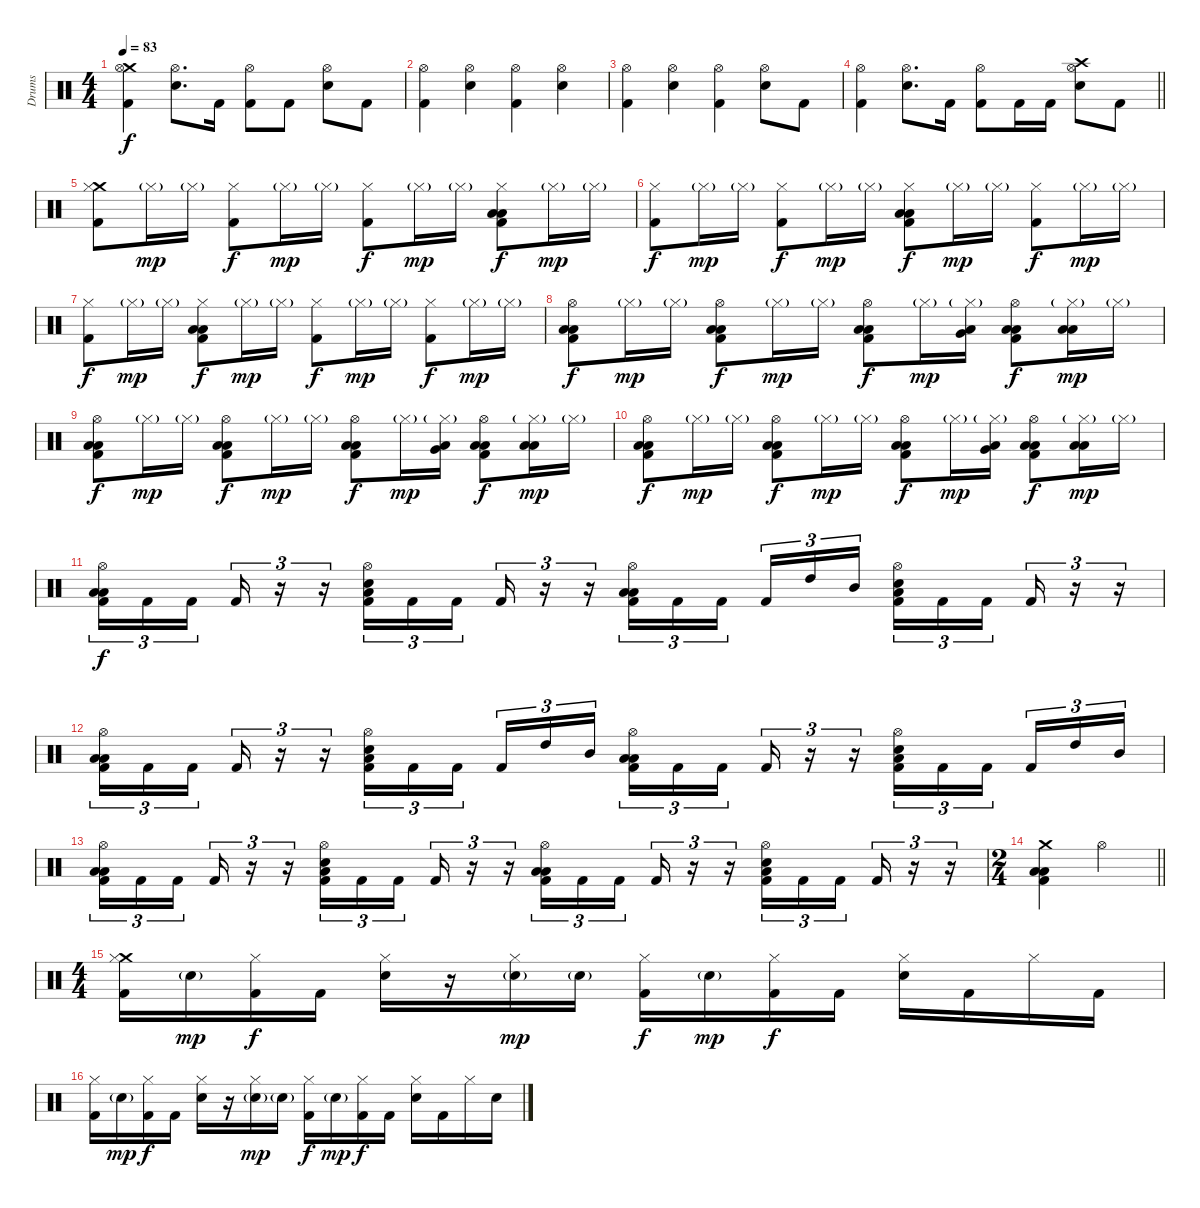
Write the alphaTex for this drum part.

\track ("Drums" "Drums") {instrument percussion}
\staff {score}
\articulation defaults
\ts (4 4)
\tempo 83
\clef neutral
\ks c
("Crash medium (hit)" "Hi-Hat (open)" "Kick (hit) 2").4{dy f} ("Hi-Hat (open)" "Electric Snare (hit)").8{d} "Kick (hit) 2".16 ("Hi-Hat (open)" "Kick (hit) 2").8 "Kick (hit) 2".8 ("Hi-Hat (open)" "Electric Snare (hit)").8 "Kick (hit) 2".8 |
("Hi-Hat (open)" "Kick (hit) 2").4 ("Hi-Hat (open)" "Electric Snare (hit)").4 ("Hi-Hat (open)" "Kick (hit) 2").4 ("Hi-Hat (open)" "Electric Snare (hit)").4 |
("Hi-Hat (open)" "Kick (hit) 2").4 ("Hi-Hat (open)" "Electric Snare (hit)").4 ("Hi-Hat (open)" "Kick (hit) 2").4 ("Hi-Hat (open)" "Electric Snare (hit)").8 "Kick (hit) 2".8 |
\barLineRight lightlight
("Hi-Hat (open)" "Kick (hit) 2").4 ("Hi-Hat (open)" "Electric Snare (hit)").8{d} "Kick (hit) 2".16 ("Hi-Hat (open)" "Kick (hit) 2").8 "Kick (hit) 2".16 "Kick (hit) 2".16 ("Crash high (hit)" "Hi-Hat (open)" "Electric Snare (hit)").8 "Kick (hit) 2".8 |
\section ("" "")
("Crash medium (hit)" "Hi-Hat (closed)" "Kick (hit) 2").8 "Hi-Hat (closed)"{g}.16{dy mp} "Hi-Hat (closed)"{g}.16 ("Hi-Hat (closed)" "Kick (hit) 2").8{dy f} "Hi-Hat (closed)"{g}.16{dy mp} "Hi-Hat (closed)"{g}.16 ("Hi-Hat (closed)" "Kick (hit) 2").8{dy f} "Hi-Hat (closed)"{g}.16{dy mp} "Hi-Hat (closed)"{g}.16 ("Hi-Hat (closed)" "Low Tom (hit)" "Low Floor Tom (hit)" "Kick (hit) 2").8{dy f} "Hi-Hat (closed)"{g}.16{dy mp} "Hi-Hat (closed)"{g}.16 |
("Hi-Hat (closed)" "Kick (hit) 2").8{dy f} "Hi-Hat (closed)"{g}.16{dy mp} "Hi-Hat (closed)"{g}.16 ("Hi-Hat (closed)" "Kick (hit) 2").8{dy f} "Hi-Hat (closed)"{g}.16{dy mp} "Hi-Hat (closed)"{g}.16 ("Hi-Hat (closed)" "Low Tom (hit)" "Low Floor Tom (hit)" "Kick (hit) 2").8{dy f} "Hi-Hat (closed)"{g}.16{dy mp} "Hi-Hat (closed)"{g}.16 ("Hi-Hat (closed)" "Kick (hit) 2").8{dy f} "Hi-Hat (closed)"{g}.16{dy mp} "Hi-Hat (closed)"{g}.16 |
("Hi-Hat (closed)" "Kick (hit) 2").8{dy f} "Hi-Hat (closed)"{g}.16{dy mp} "Hi-Hat (closed)"{g}.16 ("Hi-Hat (closed)" "Low Tom (hit)" "Low Floor Tom (hit)" "Kick (hit) 2").8{dy f} "Hi-Hat (closed)"{g}.16{dy mp} "Hi-Hat (closed)"{g}.16 ("Hi-Hat (closed)" "Kick (hit) 2").8{dy f} "Hi-Hat (closed)"{g}.16{dy mp} "Hi-Hat (closed)"{g}.16 ("Hi-Hat (closed)" "Kick (hit) 2").8{dy f} "Hi-Hat (closed)"{g}.16{dy mp} "Hi-Hat (closed)"{g}.16 |
("Hi-Hat (open)" "Low Tom (hit)" "Low Floor Tom (hit)" "Kick (hit) 2").8{dy f} "Hi-Hat (closed)"{g}.16{dy mp} "Hi-Hat (closed)"{g}.16 ("Hi-Hat (open)" "Low Tom (hit)" "Low Floor Tom (hit)" "Kick (hit) 2").8{dy f} "Hi-Hat (closed)"{g}.16{dy mp} "Hi-Hat (closed)"{g}.16 ("Hi-Hat (open)" "Low Tom (hit)" "Low Floor Tom (hit)" "Kick (hit) 2").8{dy f} "Hi-Hat (closed)"{g}.16{dy mp} ("Hi-Hat (closed)"{g} "Very Low Tom (hit)" "Low Floor Tom (hit)").16 ("Hi-Hat (open)" "Low Tom (hit)" "Low Floor Tom (hit)" "Kick (hit) 2").8{dy f} ("Hi-Hat (closed)"{g} "Low Floor Tom (hit)" "Low Tom (hit)").16{dy mp} "Hi-Hat (closed)"{g}.16 |
("Hi-Hat (open)" "Low Tom (hit)" "Low Floor Tom (hit)" "Kick (hit) 2").8{dy f} "Hi-Hat (closed)"{g}.16{dy mp} "Hi-Hat (closed)"{g}.16 ("Hi-Hat (open)" "Low Tom (hit)" "Low Floor Tom (hit)" "Kick (hit) 2").8{dy f} "Hi-Hat (closed)"{g}.16{dy mp} "Hi-Hat (closed)"{g}.16 ("Hi-Hat (open)" "Low Tom (hit)" "Low Floor Tom (hit)" "Kick (hit) 2").8{dy f} "Hi-Hat (closed)"{g}.16{dy mp} ("Hi-Hat (closed)"{g} "Very Low Tom (hit)" "Low Floor Tom (hit)").16 ("Hi-Hat (open)" "Low Tom (hit)" "Low Floor Tom (hit)" "Kick (hit) 2").8{dy f} ("Hi-Hat (closed)"{g} "Low Floor Tom (hit)" "Low Tom (hit)").16{dy mp} "Hi-Hat (closed)"{g}.16 |
("Hi-Hat (open)" "Low Tom (hit)" "Low Floor Tom (hit)" "Kick (hit) 2").8{dy f} "Hi-Hat (closed)"{g}.16{dy mp} "Hi-Hat (closed)"{g}.16 ("Hi-Hat (open)" "Low Tom (hit)" "Low Floor Tom (hit)" "Kick (hit) 2").8{dy f} "Hi-Hat (closed)"{g}.16{dy mp} "Hi-Hat (closed)"{g}.16 ("Hi-Hat (open)" "Low Tom (hit)" "Low Floor Tom (hit)" "Kick (hit) 2").8{dy f} "Hi-Hat (closed)"{g}.16{dy mp} ("Hi-Hat (closed)"{g} "Very Low Tom (hit)" "Low Floor Tom (hit)").16 ("Hi-Hat (open)" "Low Tom (hit)" "Low Floor Tom (hit)" "Kick (hit) 2").8{dy f} ("Hi-Hat (closed)"{g} "Low Floor Tom (hit)" "Low Tom (hit)").16{dy mp} "Hi-Hat (closed)"{g}.16 |
("Hi-Hat (open)" "Low Tom (hit)" "Low Floor Tom (hit)" "Kick (hit) 2").16{tu (3 2) dy f} "Kick (hit) 2".16{tu (3 2)} "Kick (hit) 2".16{tu (3 2) beam splitsecondary} "Kick (hit) 2".16{tu (3 2)} r.16{tu (3 2)} r.16{tu (3 2)} ("Hi-Hat (open)" "Electric Snare (hit)" "Low Floor Tom (hit)" "Kick (hit) 2").16{tu (3 2)} "Kick (hit) 2".16{tu (3 2)} "Kick (hit) 2".16{tu (3 2) beam splitsecondary} "Kick (hit) 2".16{tu (3 2)} r.16{tu (3 2)} r.16{tu (3 2)} ("Hi-Hat (open)" "Low Tom (hit)" "Low Floor Tom (hit)" "Kick (hit) 2").16{tu (3 2)} "Kick (hit) 2".16{tu (3 2)} "Kick (hit) 2".16{tu (3 2) beam splitsecondary} "Kick (hit) 2".16{tu (3 2)} "High Tom (hit)".16{tu (3 2)} "Mid Tom (hit)".16{tu (3 2)} ("Hi-Hat (open)" "Low Tom (hit)" "Electric Snare (hit)" "Kick (hit) 2").16{tu (3 2)} "Kick (hit) 2".16{tu (3 2)} "Kick (hit) 2".16{tu (3 2) beam splitsecondary} "Kick (hit) 2".16{tu (3 2)} r.16{tu (3 2)} r.16{tu (3 2)} |
("Hi-Hat (open)" "Low Tom (hit)" "Low Floor Tom (hit)" "Kick (hit) 2").16{tu (3 2)} "Kick (hit) 2".16{tu (3 2)} "Kick (hit) 2".16{tu (3 2) beam splitsecondary} "Kick (hit) 2".16{tu (3 2)} r.16{tu (3 2)} r.16{tu (3 2)} ("Hi-Hat (open)" "Low Tom (hit)" "Electric Snare (hit)" "Kick (hit) 2").16{tu (3 2)} "Kick (hit) 2".16{tu (3 2)} "Kick (hit) 2".16{tu (3 2) beam splitsecondary} "Kick (hit) 2".16{tu (3 2)} "High Tom (hit)".16{tu (3 2)} "Mid Tom (hit)".16{tu (3 2)} ("Hi-Hat (open)" "Low Tom (hit)" "Low Floor Tom (hit)" "Kick (hit) 2").16{tu (3 2)} "Kick (hit) 2".16{tu (3 2)} "Kick (hit) 2".16{tu (3 2) beam splitsecondary} "Kick (hit) 2".16{tu (3 2)} r.16{tu (3 2)} r.16{tu (3 2)} ("Hi-Hat (open)" "Low Tom (hit)" "Electric Snare (hit)" "Kick (hit) 2").16{tu (3 2)} "Kick (hit) 2".16{tu (3 2)} "Kick (hit) 2".16{tu (3 2) beam splitsecondary} "Kick (hit) 2".16{tu (3 2)} "High Tom (hit)".16{tu (3 2)} "Mid Tom (hit)".16{tu (3 2)} |
("Hi-Hat (open)" "Low Tom (hit)" "Low Floor Tom (hit)" "Kick (hit) 2").16{tu (3 2)} "Kick (hit) 2".16{tu (3 2)} "Kick (hit) 2".16{tu (3 2) beam splitsecondary} "Kick (hit) 2".16{tu (3 2)} r.16{tu (3 2)} r.16{tu (3 2)} ("Hi-Hat (open)" "Low Tom (hit)" "Electric Snare (hit)" "Kick (hit) 2").16{tu (3 2)} "Kick (hit) 2".16{tu (3 2)} "Kick (hit) 2".16{tu (3 2) beam splitsecondary} "Kick (hit) 2".16{tu (3 2)} r.16{tu (3 2)} r.16{tu (3 2)} ("Hi-Hat (open)" "Low Tom (hit)" "Low Floor Tom (hit)" "Kick (hit) 2").16{tu (3 2)} "Kick (hit) 2".16{tu (3 2)} "Kick (hit) 2".16{tu (3 2) beam splitsecondary} "Kick (hit) 2".16{tu (3 2)} r.16{tu (3 2)} r.16{tu (3 2)} ("Hi-Hat (open)" "Electric Snare (hit)" "Low Floor Tom (hit)" "Kick (hit) 2").16{tu (3 2)} "Kick (hit) 2".16{tu (3 2)} "Kick (hit) 2".16{tu (3 2) beam splitsecondary} "Kick (hit) 2".16{tu (3 2)} r.16{tu (3 2)} r.16{tu (3 2)} |
\ts (2 4)
\barLineRight lightlight
("Crash medium (hit)" "Low Tom (hit)" "Low Floor Tom (hit)" "Kick (hit) 2").4 "Hi-Hat (open)".4 |
\ts (4 4)
\section ("" "")
("Crash medium (hit)" "Hi-Hat (closed)" "Kick (hit) 2").16 "Electric Snare (hit)"{g}.16{dy mp} ("Hi-Hat (closed)" "Kick (hit) 2").16{dy f} "Kick (hit) 2".16 ("Hi-Hat (closed)" "Electric Snare (hit)").16 r.16 ("Hi-Hat (closed)" "Electric Snare (hit)"{g}).16{dy mp} "Electric Snare (hit)"{g}.16 ("Hi-Hat (closed)" "Kick (hit) 2").16{dy f} "Electric Snare (hit)"{g}.16{dy mp} ("Hi-Hat (closed)" "Kick (hit) 2").16{dy f} "Kick (hit) 2".16 ("Hi-Hat (closed)" "Electric Snare (hit)").16 "Kick (hit) 2".16 "Hi-Hat (closed)".16 "Kick (hit) 2".16 |
("Hi-Hat (closed)" "Kick (hit) 2").16 "Electric Snare (hit)"{g}.16{dy mp} ("Hi-Hat (closed)" "Kick (hit) 2").16{dy f} "Kick (hit) 2".16 ("Hi-Hat (closed)" "Electric Snare (hit)").16 r.16 ("Hi-Hat (closed)" "Electric Snare (hit)"{g}).16{dy mp} "Electric Snare (hit)"{g}.16 ("Hi-Hat (closed)" "Kick (hit) 2").16{dy f} "Electric Snare (hit)"{g}.16{dy mp} ("Hi-Hat (closed)" "Kick (hit) 2").16{dy f} "Kick (hit) 2".16 ("Hi-Hat (closed)" "Electric Snare (hit)").16 "Kick (hit) 2".16 "Hi-Hat (closed)".16 "Electric Snare (hit)".16
